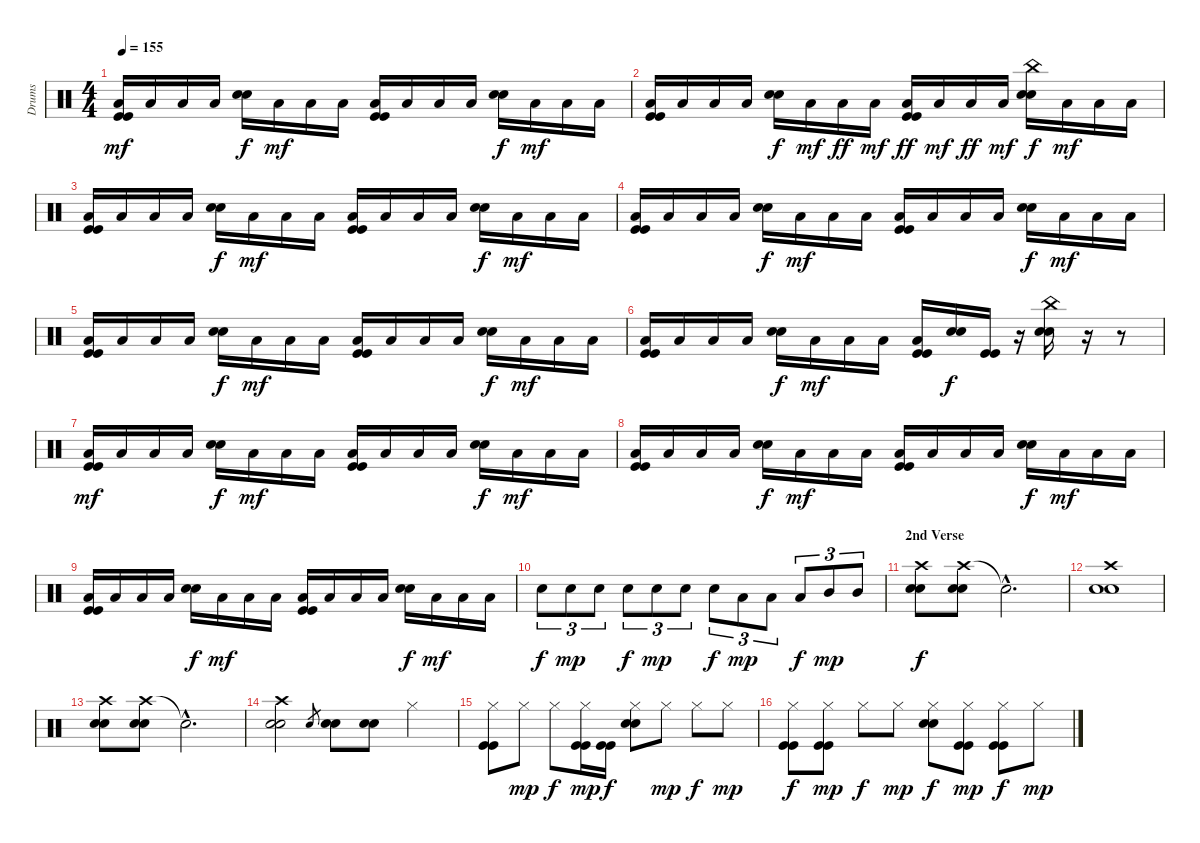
\track ("Drums" "Drums") {instrument percussion}
\staff {score}
\articulation defaults
\ts (4 4)
\tempo 155
\clef neutral
\ks c
("Low Tom (hit)" "Kick (hit)" "Kick (hit)").16{dy mf} "Low Tom (hit)".16 "Low Tom (hit)".16 "Low Tom (hit)".16 ("Snare (hit) 2" "Snare (hit) 2").16{dy f} "Low Tom (hit)".16{dy mf} "Low Tom (hit)".16 "Low Tom (hit)".16 ("Low Tom (hit)" "Kick (hit)" "Kick (hit)").16 "Low Tom (hit)".16 "Low Tom (hit)".16 "Low Tom (hit)".16 ("Snare (hit) 2" "Snare (hit) 2").16{dy f} "Low Tom (hit)".16{dy mf} "Low Tom (hit)".16 "Low Tom (hit)".16 |
("Low Tom (hit)" "Kick (hit)" "Kick (hit)").16 "Low Tom (hit)".16 "Low Tom (hit)".16 "Low Tom (hit)".16 ("Snare (hit) 2" "Snare (hit) 2").16{dy f} "Low Tom (hit)".16{dy mf} "Low Tom (hit)".16{dy ff} "Low Tom (hit)".16{dy mf} ("Low Tom (hit)" "Kick (hit)" "Kick (hit)").16{dy ff} "Low Tom (hit)".16{dy mf} "Low Tom (hit)".16{dy ff} "Low Tom (hit)".16{dy mf} ("China (hit)" "Snare (hit) 2" "Snare (hit) 2").16{dy f} "Low Tom (hit)".16{dy mf} "Low Tom (hit)".16 "Low Tom (hit)".16 |
("Low Tom (hit)" "Kick (hit)" "Kick (hit)").16 "Low Tom (hit)".16 "Low Tom (hit)".16 "Low Tom (hit)".16 ("Snare (hit) 2" "Snare (hit) 2").16{dy f} "Low Tom (hit)".16{dy mf} "Low Tom (hit)".16 "Low Tom (hit)".16 ("Low Tom (hit)" "Kick (hit)" "Kick (hit)").16 "Low Tom (hit)".16 "Low Tom (hit)".16 "Low Tom (hit)".16 ("Snare (hit) 2" "Snare (hit) 2").16{dy f} "Low Tom (hit)".16{dy mf} "Low Tom (hit)".16 "Low Tom (hit)".16 |
("Low Tom (hit)" "Kick (hit)" "Kick (hit)").16 "Low Tom (hit)".16 "Low Tom (hit)".16 "Low Tom (hit)".16 ("Snare (hit) 2" "Snare (hit) 2").16{dy f} "Low Tom (hit)".16{dy mf} "Low Tom (hit)".16 "Low Tom (hit)".16 ("Low Tom (hit)" "Kick (hit)" "Kick (hit)").16 "Low Tom (hit)".16 "Low Tom (hit)".16 "Low Tom (hit)".16 ("Snare (hit) 2" "Snare (hit) 2").16{dy f} "Low Tom (hit)".16{dy mf} "Low Tom (hit)".16 "Low Tom (hit)".16 |
("Low Tom (hit)" "Kick (hit)" "Kick (hit)").16 "Low Tom (hit)".16 "Low Tom (hit)".16 "Low Tom (hit)".16 ("Snare (hit) 2" "Snare (hit) 2").16{dy f} "Low Tom (hit)".16{dy mf} "Low Tom (hit)".16 "Low Tom (hit)".16 ("Low Tom (hit)" "Kick (hit)" "Kick (hit)").16 "Low Tom (hit)".16 "Low Tom (hit)".16 "Low Tom (hit)".16 ("Snare (hit) 2" "Snare (hit) 2").16{dy f} "Low Tom (hit)".16{dy mf} "Low Tom (hit)".16 "Low Tom (hit)".16 |
("Low Tom (hit)" "Kick (hit)" "Kick (hit)").16 "Low Tom (hit)".16 "Low Tom (hit)".16 "Low Tom (hit)".16 ("Snare (hit) 2" "Snare (hit) 2").16{dy f} "Low Tom (hit)".16{dy mf} "Low Tom (hit)".16 "Low Tom (hit)".16 ("Low Tom (hit)" "Kick (hit)" "Kick (hit)").16 ("Snare (hit) 2" "Snare (hit) 2").16{dy f} ("Kick (hit)" "Kick (hit)").16 r.16 ("China (hit)" "Snare (hit) 2" "Snare (hit) 2").16 r.16 r.8 |
("Low Tom (hit)" "Kick (hit)" "Kick (hit)").16{dy mf} "Low Tom (hit)".16 "Low Tom (hit)".16 "Low Tom (hit)".16 ("Snare (hit) 2" "Snare (hit) 2").16{dy f} "Low Tom (hit)".16{dy mf} "Low Tom (hit)".16 "Low Tom (hit)".16 ("Low Tom (hit)" "Kick (hit)" "Kick (hit)").16 "Low Tom (hit)".16 "Low Tom (hit)".16 "Low Tom (hit)".16 ("Snare (hit) 2" "Snare (hit) 2").16{dy f} "Low Tom (hit)".16{dy mf} "Low Tom (hit)".16 "Low Tom (hit)".16 |
("Low Tom (hit)" "Kick (hit)" "Kick (hit)").16 "Low Tom (hit)".16 "Low Tom (hit)".16 "Low Tom (hit)".16 ("Snare (hit) 2" "Snare (hit) 2").16{dy f} "Low Tom (hit)".16{dy mf} "Low Tom (hit)".16 "Low Tom (hit)".16 ("Low Tom (hit)" "Kick (hit)" "Kick (hit)").16 "Low Tom (hit)".16 "Low Tom (hit)".16 "Low Tom (hit)".16 ("Snare (hit) 2" "Snare (hit) 2").16{dy f} "Low Tom (hit)".16{dy mf} "Low Tom (hit)".16 "Low Tom (hit)".16 |
("Low Tom (hit)" "Kick (hit)" "Kick (hit)").16 "Low Tom (hit)".16 "Low Tom (hit)".16 "Low Tom (hit)".16 ("Snare (hit) 2" "Snare (hit) 2").16{dy f} "Low Tom (hit)".16{dy mf} "Low Tom (hit)".16 "Low Tom (hit)".16 ("Low Tom (hit)" "Kick (hit)" "Kick (hit)").16 "Low Tom (hit)".16 "Low Tom (hit)".16 "Low Tom (hit)".16 ("Snare (hit) 2" "Snare (hit) 2").16{dy f} "Low Tom (hit)".16{dy mf} "Low Tom (hit)".16 "Low Tom (hit)".16 |
"Snare (hit) 2".8{tu (3 2) dy f} "Snare (hit) 2".8{tu (3 2) dy mp} "Snare (hit) 2".8{tu (3 2)} "Snare (hit) 2".8{tu (3 2) dy f} "Snare (hit) 2".8{tu (3 2) dy mp} "Snare (hit) 2".8{tu (3 2)} "Snare (hit) 2".8{tu (3 2) dy f} "Low Tom (hit)".8{tu (3 2) dy mp} "Low Tom (hit)".8{tu (3 2)} "Low Tom (hit)".8{tu (3 2) dy f} "Mid Tom (hit)".8{tu (3 2) dy mp} "Mid Tom (hit)".8{tu (3 2)} |
\section ("" "2nd Verse")
("Crash high (hit)" "Snare (hit) 2" "Snare (hit) 2").8{dy f} ("Crash high (hit)" "Snare (hit) 2" "Snare (hit) 2").8 "Snare (hit)"{hac t}.2{d} |
("Crash high (hit)" "Snare (hit) 2" "Snare (hit) 2").1 |
("Crash high (hit)" "Snare (hit) 2" "Snare (hit) 2").8 ("Crash high (hit)" "Snare (hit) 2" "Snare (hit) 2").8 "Snare (hit)"{hac t}.2{d} |
("Crash high (hit)" "Snare (hit) 2" "Snare (hit) 2").2 "Snare (hit) 2".8{gr} ("Snare (hit) 2" "Snare (hit) 2").8 ("Snare (hit) 2" "Snare (hit) 2").8 "Hi-Hat (closed)".4 |
("Hi-Hat (closed)" "Kick (hit)" "Kick (hit)").8 "Hi-Hat (closed)".8{dy mp} "Hi-Hat (closed)".8{dy f} ("Hi-Hat (closed)" "Kick (hit)" "Kick (hit)").16{dy mp} ("Kick (hit)" "Kick (hit)").16{dy f} ("Hi-Hat (closed)" "Snare (hit) 2" "Snare (hit) 2").8 "Hi-Hat (closed)".8{dy mp} "Hi-Hat (closed)".8{dy f} "Hi-Hat (closed)".8{dy mp} |
("Hi-Hat (closed)" "Kick (hit)" "Kick (hit)").8{dy f} ("Hi-Hat (closed)" "Kick (hit)" "Kick (hit)").8{dy mp} "Hi-Hat (closed)".8{dy f} "Hi-Hat (closed)".8{dy mp} ("Hi-Hat (closed)" "Snare (hit) 2" "Snare (hit) 2").8{dy f} ("Hi-Hat (closed)" "Kick (hit)" "Kick (hit)").8{dy mp} ("Hi-Hat (closed)" "Kick (hit)" "Kick (hit)").8{dy f} "Hi-Hat (closed)".8{dy mp}
